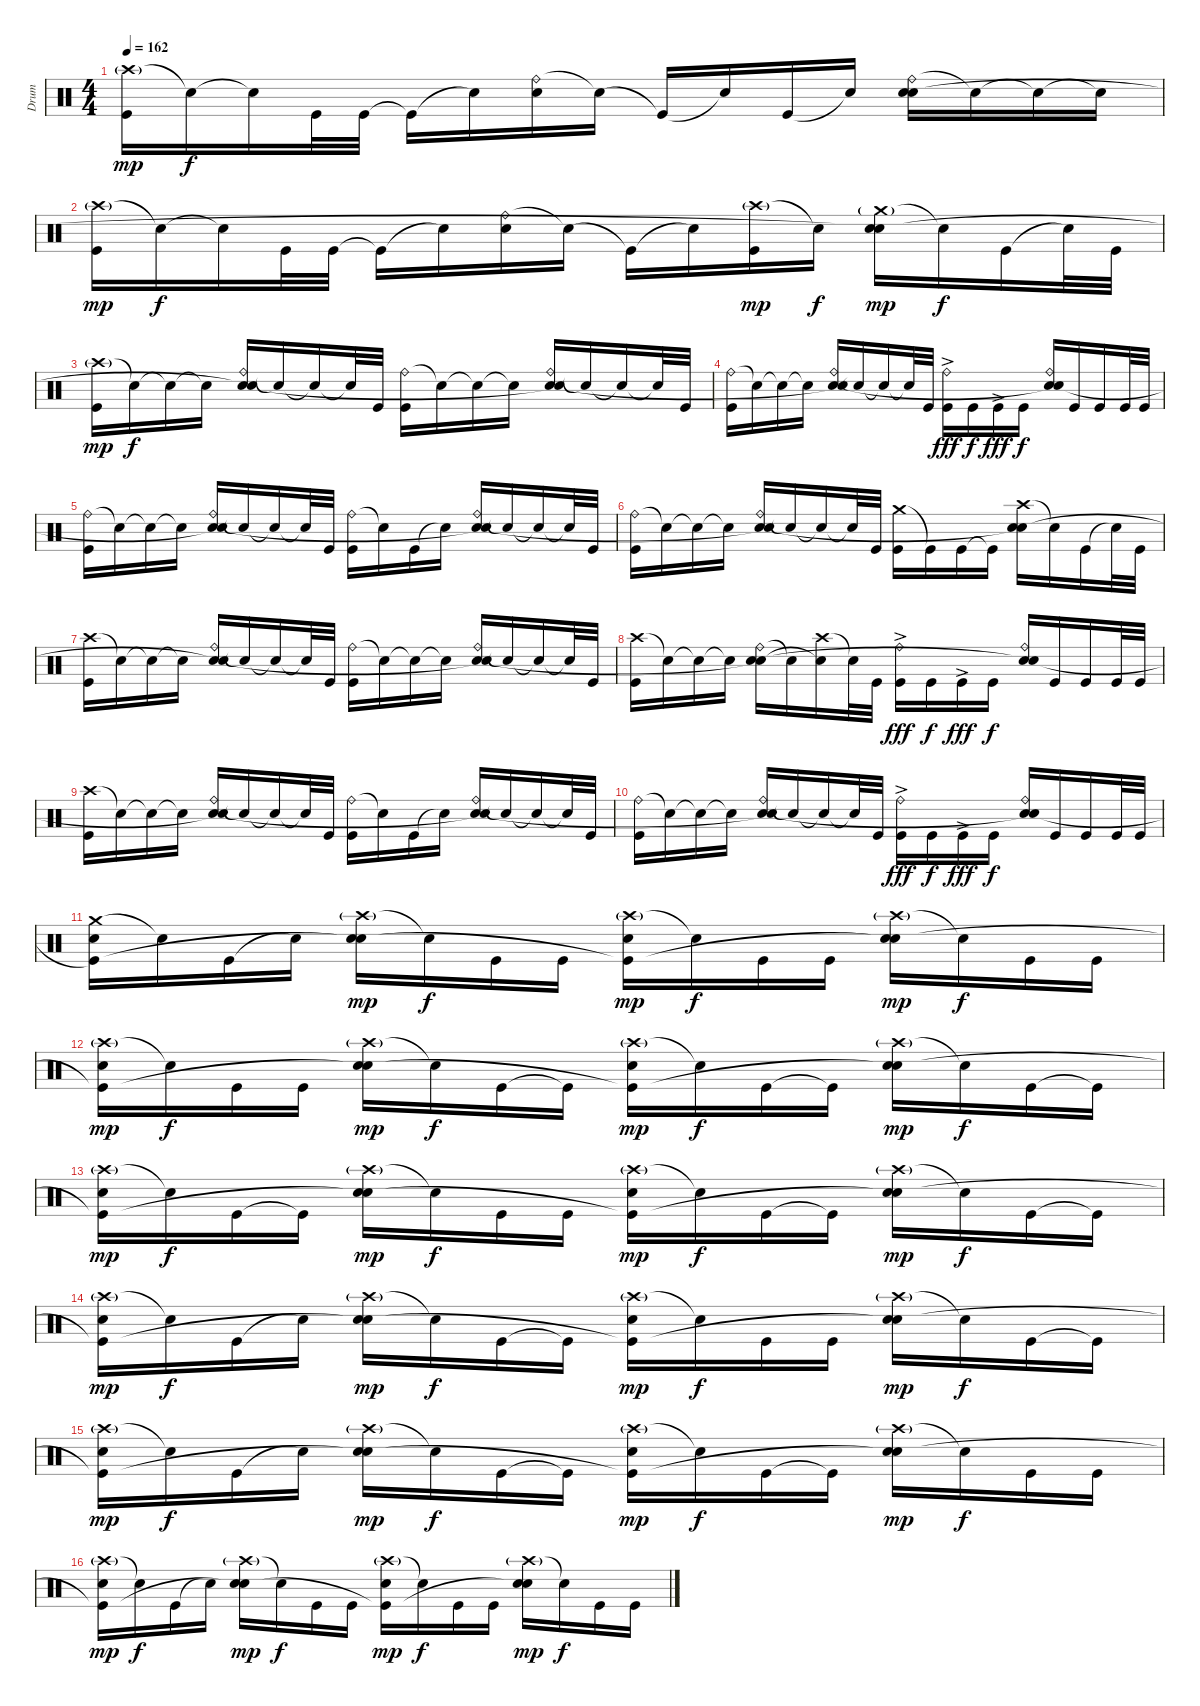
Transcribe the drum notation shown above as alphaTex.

\track ("Drum" "Drum") {instrument percussion}
\staff {score}
\articulation defaults
\ts (4 4)
\tempo 162
\clef neutral
\ks c
("Crash high (hit)"{g} "Kick (hit)").16{dy mp} "Snare (hit)"{t}.16{dy f} "Snare (hit)"{t}.16 "Kick (hit)".32 "Kick (hit)".32 "Kick (hit)"{t}.16 "Snare (hit)"{t}.16 ("Ride (bell)" "Electric Snare (hit)").16 "Snare (hit)"{t}.16 "Kick (hit)"{t}.16 "Snare (hit)"{t}.16 "Kick (hit)".16 "Snare (hit)"{t}.16 ("Ride (bell)" "Electric Snare (hit)" "Snare (hit)"{t}).16 "Snare (hit)"{t}.16 "Snare (hit)"{t}.16 "Snare (hit)"{t}.16 |
("Crash high (hit)"{g} "Kick (hit)").16{dy mp} "Snare (hit)"{t}.16{dy f} "Snare (hit)"{t}.16 "Kick (hit)".32 "Kick (hit)".32 "Kick (hit)"{t}.16 "Snare (hit)"{t}.16 ("Ride (bell)" "Electric Snare (hit)").16 "Snare (hit)"{t}.16 "Kick (hit)"{t}.16 "Snare (hit)"{t}.16 ("Crash high (hit)"{g} "Kick (hit)").16{dy mp} "Snare (hit)"{t}.16{dy f} ("Crash medium (hit)"{g} "Electric Snare (hit)" "Snare (hit)"{t}).16{dy mp} "Snare (hit)"{t}.16{dy f} "Kick (hit)".16 "Snare (hit)"{t}.32 "Kick (hit)".32 |
("Crash high (hit)"{g} "Kick (hit)").16{dy mp} "Snare (hit)"{t}.16{dy f} "Snare (hit)"{t}.16 "Snare (hit)"{t}.16 ("Ride (bell)" "Electric Snare (hit)" "Snare (hit)"{t}).16 "Snare (hit)"{t}.16 "Snare (hit)"{t}.16 "Snare (hit)"{t}.32 "Kick (hit)".32 ("Ride (bell)" "Kick (hit)").16 "Snare (hit)"{t}.16 "Snare (hit)"{t}.16 "Snare (hit)"{t}.16 ("Ride (bell)" "Electric Snare (hit)" "Snare (hit)"{t}).16 "Snare (hit)"{t}.16 "Snare (hit)"{t}.16 "Snare (hit)"{t}.32 "Kick (hit)".32 |
("Ride (bell)" "Kick (hit)").16 "Snare (hit)"{t}.16 "Snare (hit)"{t}.16 "Snare (hit)"{t}.16 ("Ride (bell)" "Electric Snare (hit)" "Snare (hit)"{t}).16 "Snare (hit)"{t}.16 "Snare (hit)"{t}.16 "Snare (hit)"{t}.32 "Kick (hit)".32 ("Ride (bell)" "Kick (hit)"{ac}).16{dy fff} "Kick (hit)".16{dy f} "Kick (hit)"{ac}.16{dy fff} "Kick (hit)".16{dy f} ("Ride (bell)" "Electric Snare (hit)" "Snare (hit)"{t}).16 "Kick (hit)".16 "Kick (hit)".16 "Kick (hit)".32 "Kick (hit)".32 |
("Ride (bell)" "Kick (hit)").16 "Snare (hit)"{t}.16 "Snare (hit)"{t}.16 "Snare (hit)"{t}.16 ("Ride (bell)" "Electric Snare (hit)" "Snare (hit)"{t}).16 "Snare (hit)"{t}.16 "Snare (hit)"{t}.16 "Snare (hit)"{t}.32 "Kick (hit)".32 ("Ride (bell)" "Kick (hit)").16 "Snare (hit)"{t}.16 "Kick (hit)".16 "Snare (hit)"{t}.16 ("Ride (bell)" "Electric Snare (hit)" "Snare (hit)"{t}).16 "Snare (hit)"{t}.16 "Snare (hit)"{t}.16 "Snare (hit)"{t}.32 "Kick (hit)".32 |
("Ride (bell)" "Kick (hit)").16 "Snare (hit)"{t}.16 "Snare (hit)"{t}.16 "Snare (hit)"{t}.16 ("Ride (bell)" "Electric Snare (hit)" "Snare (hit)"{t}).16 "Snare (hit)"{t}.16 "Snare (hit)"{t}.16 "Snare (hit)"{t}.32 "Kick (hit)".32 ("Crash medium (hit)" "Kick (hit)").16 "Kick (hit)"{t}.16 "Kick (hit)".16 "Kick (hit)"{t}.16 ("Crash high (hit)" "Electric Snare (hit)" "Snare (hit)"{t}).16 "Snare (hit)"{t}.16 "Kick (hit)".16 "Snare (hit)"{t}.32 "Kick (hit)".32 |
("Crash high (hit)" "Kick (hit)").16 "Snare (hit)"{t}.16 "Snare (hit)"{t}.16 "Snare (hit)"{t}.16 ("Ride (bell)" "Electric Snare (hit)" "Snare (hit)"{t}).16 "Snare (hit)"{t}.16 "Snare (hit)"{t}.16 "Snare (hit)"{t}.32 "Kick (hit)".32 ("Ride (bell)" "Kick (hit)").16 "Snare (hit)"{t}.16 "Snare (hit)"{t}.16 "Snare (hit)"{t}.16 ("Ride (bell)" "Electric Snare (hit)" "Snare (hit)"{t}).16 "Snare (hit)"{t}.16 "Snare (hit)"{t}.16 "Snare (hit)"{t}.32 "Kick (hit)".32 |
("Crash high (hit)" "Kick (hit)").16 "Snare (hit)"{t}.16 "Snare (hit)"{t}.16 "Snare (hit)"{t}.16 ("Ride (bell)" "Electric Snare (hit)" "Snare (hit)"{t}).16 "Snare (hit)"{t}.16 ("Crash high (hit)" "Snare (hit)"{t}).16 "Snare (hit)"{t}.32 "Kick (hit)".32 ("Ride (bell)" "Kick (hit)"{ac}).16{dy fff} "Kick (hit)".16{dy f} "Kick (hit)"{ac}.16{dy fff} "Kick (hit)".16{dy f} ("Ride (bell)" "Electric Snare (hit)" "Snare (hit)"{t}).16 "Kick (hit)".16 "Kick (hit)".16 "Kick (hit)".32 "Kick (hit)".32 |
("Crash high (hit)" "Kick (hit)").16 "Snare (hit)"{t}.16 "Snare (hit)"{t}.16 "Snare (hit)"{t}.16 ("Ride (bell)" "Electric Snare (hit)" "Snare (hit)"{t}).16 "Snare (hit)"{t}.16 "Snare (hit)"{t}.16 "Snare (hit)"{t}.32 "Kick (hit)".32 ("Ride (bell)" "Kick (hit)").16 "Snare (hit)"{t}.16 "Kick (hit)".16 "Snare (hit)"{t}.16 ("Ride (bell)" "Electric Snare (hit)" "Snare (hit)"{t}).16 "Snare (hit)"{t}.16 "Snare (hit)"{t}.16 "Snare (hit)"{t}.32 "Kick (hit)".32 |
("Ride (bell)" "Kick (hit)").16 "Snare (hit)"{t}.16 "Snare (hit)"{t}.16 "Snare (hit)"{t}.16 ("Ride (bell)" "Electric Snare (hit)" "Snare (hit)"{t}).16 "Snare (hit)"{t}.16 "Snare (hit)"{t}.16 "Snare (hit)"{t}.32 "Kick (hit)".32 ("Ride (bell)" "Kick (hit)"{ac}).16{dy fff} "Kick (hit)".16{dy f} "Kick (hit)"{ac}.16{dy fff} "Kick (hit)".16{dy f} ("Ride (bell)" "Electric Snare (hit)" "Snare (hit)"{t}).16 "Kick (hit)".16 "Kick (hit)".16 "Kick (hit)".32 "Kick (hit)".32 |
("Crash medium (hit)" "Electric Snare (hit)" "Kick (hit)"{t}).16 "Snare (hit)"{t}.16 "Kick (hit)".16 "Snare (hit)"{t}.16 ("Crash high (hit)"{g} "Electric Snare (hit)" "Snare (hit)"{t}).16{dy mp} "Snare (hit)"{t}.16{dy f} "Kick (hit)".16 "Kick (hit)".16 ("Crash high (hit)"{g} "Electric Snare (hit)" "Kick (hit)"{t}).16{dy mp} "Snare (hit)"{t}.16{dy f} "Kick (hit)".16 "Kick (hit)".16 ("Crash high (hit)"{g} "Electric Snare (hit)" "Snare (hit)"{t}).16{dy mp} "Snare (hit)"{t}.16{dy f} "Kick (hit)".16 "Kick (hit)".16 |
("Crash high (hit)"{g} "Electric Snare (hit)" "Kick (hit)"{t}).16{dy mp} "Snare (hit)"{t}.16{dy f} "Kick (hit)".16 "Kick (hit)".16 ("Crash high (hit)"{g} "Electric Snare (hit)" "Snare (hit)"{t}).16{dy mp} "Snare (hit)"{t}.16{dy f} "Kick (hit)".16 "Kick (hit)"{t}.16 ("Crash high (hit)"{g} "Electric Snare (hit)" "Kick (hit)"{t}).16{dy mp} "Snare (hit)"{t}.16{dy f} "Kick (hit)".16 "Kick (hit)"{t}.16 ("Crash high (hit)"{g} "Electric Snare (hit)" "Snare (hit)"{t}).16{dy mp} "Snare (hit)"{t}.16{dy f} "Kick (hit)".16 "Kick (hit)"{t}.16 |
("Crash high (hit)"{g} "Electric Snare (hit)" "Kick (hit)"{t}).16{dy mp} "Snare (hit)"{t}.16{dy f} "Kick (hit)".16 "Kick (hit)"{t}.16 ("Crash high (hit)"{g} "Electric Snare (hit)" "Snare (hit)"{t}).16{dy mp} "Snare (hit)"{t}.16{dy f} "Kick (hit)".16 "Kick (hit)".16 ("Crash high (hit)"{g} "Electric Snare (hit)" "Kick (hit)"{t}).16{dy mp} "Snare (hit)"{t}.16{dy f} "Kick (hit)".16 "Kick (hit)"{t}.16 ("Crash high (hit)"{g} "Electric Snare (hit)" "Snare (hit)"{t}).16{dy mp} "Snare (hit)"{t}.16{dy f} "Kick (hit)".16 "Kick (hit)"{t}.16 |
("Crash high (hit)"{g} "Electric Snare (hit)" "Kick (hit)"{t}).16{dy mp} "Snare (hit)"{t}.16{dy f} "Kick (hit)".16 "Snare (hit)"{t}.16 ("Crash high (hit)"{g} "Electric Snare (hit)" "Snare (hit)"{t}).16{dy mp} "Snare (hit)"{t}.16{dy f} "Kick (hit)".16 "Kick (hit)"{t}.16 ("Crash high (hit)"{g} "Electric Snare (hit)" "Kick (hit)"{t}).16{dy mp} "Snare (hit)"{t}.16{dy f} "Kick (hit)".16 "Kick (hit)".16 ("Crash high (hit)"{g} "Electric Snare (hit)" "Snare (hit)"{t}).16{dy mp} "Snare (hit)"{t}.16{dy f} "Kick (hit)".16 "Kick (hit)"{t}.16 |
("Crash high (hit)"{g} "Electric Snare (hit)" "Kick (hit)"{t}).16{dy mp} "Snare (hit)"{t}.16{dy f} "Kick (hit)".16 "Snare (hit)"{t}.16 ("Crash high (hit)"{g} "Electric Snare (hit)" "Snare (hit)"{t}).16{dy mp} "Snare (hit)"{t}.16{dy f} "Kick (hit)".16 "Kick (hit)"{t}.16 ("Crash high (hit)"{g} "Electric Snare (hit)" "Kick (hit)"{t}).16{dy mp} "Snare (hit)"{t}.16{dy f} "Kick (hit)".16 "Kick (hit)"{t}.16 ("Crash high (hit)"{g} "Electric Snare (hit)" "Snare (hit)"{t}).16{dy mp} "Snare (hit)"{t}.16{dy f} "Kick (hit)".16 "Kick (hit)".16 |
("Crash high (hit)"{g} "Electric Snare (hit)" "Kick (hit)"{t}).16{dy mp} "Snare (hit)"{t}.16{dy f} "Kick (hit)".16 "Snare (hit)"{t}.16 ("Crash high (hit)"{g} "Electric Snare (hit)" "Snare (hit)"{t}).16{dy mp} "Snare (hit)"{t}.16{dy f} "Kick (hit)".16 "Kick (hit)".16 ("Crash high (hit)"{g} "Electric Snare (hit)" "Kick (hit)"{t}).16{dy mp} "Snare (hit)"{t}.16{dy f} "Kick (hit)".16 "Kick (hit)".16 ("Crash high (hit)"{g} "Electric Snare (hit)" "Snare (hit)"{t}).16{dy mp} "Snare (hit)"{t}.16{dy f} "Kick (hit)".16 "Kick (hit)".16
